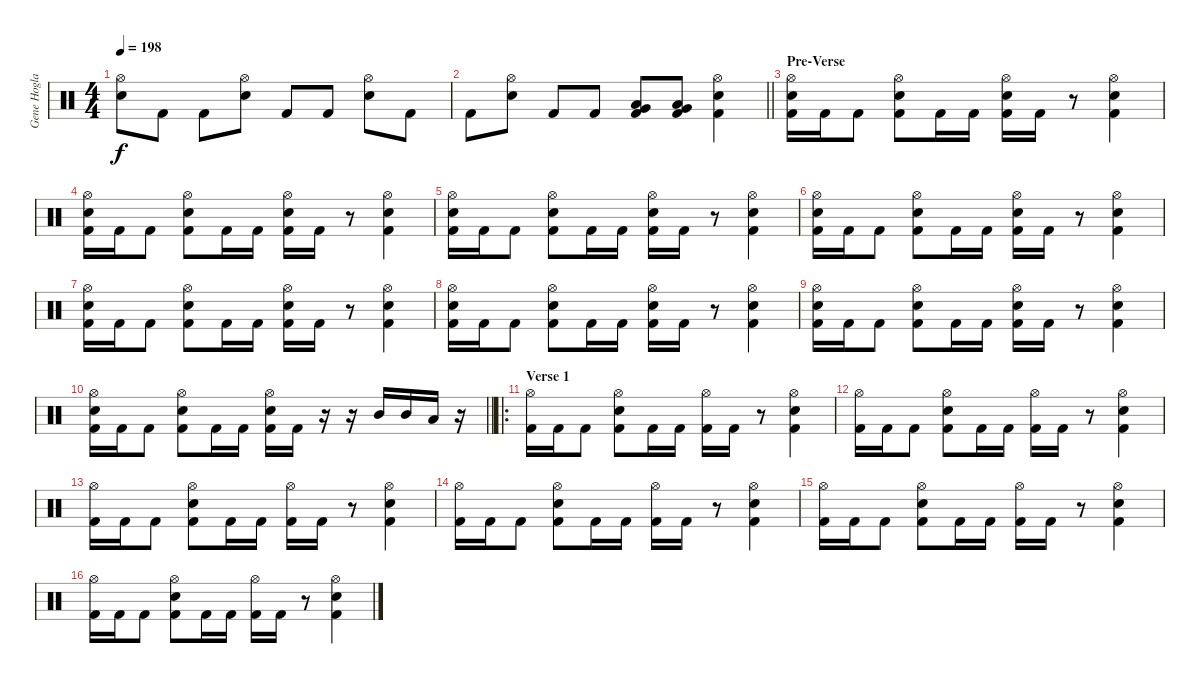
\track ("Gene Hoglan" "Gene Hogla") {instrument percussion}
\staff {score}
\articulation defaults
\ts (4 4)
\tempo 198
\clef neutral
\ks c
("Hi-Hat (open)" "Snare (hit) 2").8{dy f} "Kick (hit) 2".8 "Kick (hit) 2".8 ("Hi-Hat (open)" "Snare (hit) 2").8 "Kick (hit) 2".8 "Kick (hit) 2".8 ("Hi-Hat (open)" "Snare (hit) 2").8 "Kick (hit) 2".8 |
\barLineRight lightlight "Kick (hit) 2".8
("Hi-Hat (open)" "Snare (hit) 2").8 "Kick (hit) 2".8 "Kick (hit) 2".8 ("Low Tom (hit)" "Very Low Tom (hit)" "Kick (hit) 2").8 ("Low Tom (hit)" "Very Low Tom (hit)" "Kick (hit) 2").8 ("Hi-Hat (open)" "Snare (hit) 2" "Kick (hit) 2").4 |
\section ("" "Pre-Verse")
("Hi-Hat (open)" "Snare (hit) 2" "Kick (hit) 2").16 "Kick (hit) 2".16 "Kick (hit) 2".8 ("Hi-Hat (open)" "Snare (hit) 2" "Kick (hit) 2").8 "Kick (hit) 2".16 "Kick (hit) 2".16 ("Hi-Hat (open)" "Snare (hit) 2" "Kick (hit) 2").16 "Kick (hit) 2".16 r.8 ("Hi-Hat (open)" "Snare (hit) 2" "Kick (hit) 2").4 |
("Hi-Hat (open)" "Snare (hit) 2" "Kick (hit) 2").16 "Kick (hit) 2".16 "Kick (hit) 2".8 ("Hi-Hat (open)" "Snare (hit) 2" "Kick (hit) 2").8 "Kick (hit) 2".16 "Kick (hit) 2".16 ("Hi-Hat (open)" "Snare (hit) 2" "Kick (hit) 2").16 "Kick (hit) 2".16 r.8 ("Hi-Hat (open)" "Snare (hit) 2" "Kick (hit) 2").4 |
("Hi-Hat (open)" "Snare (hit) 2" "Kick (hit) 2").16 "Kick (hit) 2".16 "Kick (hit) 2".8 ("Hi-Hat (open)" "Snare (hit) 2" "Kick (hit) 2").8 "Kick (hit) 2".16 "Kick (hit) 2".16 ("Hi-Hat (open)" "Snare (hit) 2" "Kick (hit) 2").16 "Kick (hit) 2".16 r.8 ("Hi-Hat (open)" "Snare (hit) 2" "Kick (hit) 2").4 |
("Hi-Hat (open)" "Snare (hit) 2" "Kick (hit) 2").16 "Kick (hit) 2".16 "Kick (hit) 2".8 ("Hi-Hat (open)" "Snare (hit) 2" "Kick (hit) 2").8 "Kick (hit) 2".16 "Kick (hit) 2".16 ("Hi-Hat (open)" "Snare (hit) 2" "Kick (hit) 2").16 "Kick (hit) 2".16 r.8 ("Hi-Hat (open)" "Snare (hit) 2" "Kick (hit) 2").4 |
("Hi-Hat (open)" "Snare (hit) 2" "Kick (hit) 2").16 "Kick (hit) 2".16 "Kick (hit) 2".8 ("Hi-Hat (open)" "Snare (hit) 2" "Kick (hit) 2").8 "Kick (hit) 2".16 "Kick (hit) 2".16 ("Hi-Hat (open)" "Snare (hit) 2" "Kick (hit) 2").16 "Kick (hit) 2".16 r.8 ("Hi-Hat (open)" "Snare (hit) 2" "Kick (hit) 2").4 |
("Hi-Hat (open)" "Snare (hit) 2" "Kick (hit) 2").16 "Kick (hit) 2".16 "Kick (hit) 2".8 ("Hi-Hat (open)" "Snare (hit) 2" "Kick (hit) 2").8 "Kick (hit) 2".16 "Kick (hit) 2".16 ("Hi-Hat (open)" "Snare (hit) 2" "Kick (hit) 2").16 "Kick (hit) 2".16 r.8 ("Hi-Hat (open)" "Snare (hit) 2" "Kick (hit) 2").4 |
("Hi-Hat (open)" "Snare (hit) 2" "Kick (hit) 2").16 "Kick (hit) 2".16 "Kick (hit) 2".8 ("Hi-Hat (open)" "Snare (hit) 2" "Kick (hit) 2").8 "Kick (hit) 2".16 "Kick (hit) 2".16 ("Hi-Hat (open)" "Snare (hit) 2" "Kick (hit) 2").16 "Kick (hit) 2".16 r.8 ("Hi-Hat (open)" "Snare (hit) 2" "Kick (hit) 2").4 |
\barLineRight lightlight
("Hi-Hat (open)" "Snare (hit) 2" "Kick (hit) 2").16 "Kick (hit) 2".16 "Kick (hit) 2".8 ("Hi-Hat (open)" "Snare (hit) 2" "Kick (hit) 2").8 "Kick (hit) 2".16 "Kick (hit) 2".16 ("Hi-Hat (open)" "Snare (hit) 2" "Kick (hit) 2").16 "Kick (hit) 2".16 r.16 r.16 "Mid Tom (hit)".16 "Mid Tom (hit)".16 "Low Tom (hit)".16 r.16 |
\ro
\section ("" "Verse 1")
("Hi-Hat (open)" "Kick (hit) 2").16 "Kick (hit) 2".16 "Kick (hit) 2".8 ("Hi-Hat (open)" "Snare (hit) 2" "Kick (hit) 2").8 "Kick (hit) 2".16 "Kick (hit) 2".16 ("Hi-Hat (open)" "Kick (hit) 2").16 "Kick (hit) 2".16 r.8 ("Hi-Hat (open)" "Snare (hit) 2" "Kick (hit) 2").4 |
("Hi-Hat (open)" "Kick (hit) 2").16 "Kick (hit) 2".16 "Kick (hit) 2".8 ("Hi-Hat (open)" "Snare (hit) 2" "Kick (hit) 2").8 "Kick (hit) 2".16 "Kick (hit) 2".16 ("Hi-Hat (open)" "Kick (hit) 2").16 "Kick (hit) 2".16 r.8 ("Hi-Hat (open)" "Snare (hit) 2" "Kick (hit) 2").4 |
("Hi-Hat (open)" "Kick (hit) 2").16 "Kick (hit) 2".16 "Kick (hit) 2".8 ("Hi-Hat (open)" "Snare (hit) 2" "Kick (hit) 2").8 "Kick (hit) 2".16 "Kick (hit) 2".16 ("Hi-Hat (open)" "Kick (hit) 2").16 "Kick (hit) 2".16 r.8 ("Hi-Hat (open)" "Snare (hit) 2" "Kick (hit) 2").4 |
("Hi-Hat (open)" "Kick (hit) 2").16 "Kick (hit) 2".16 "Kick (hit) 2".8 ("Hi-Hat (open)" "Snare (hit) 2" "Kick (hit) 2").8 "Kick (hit) 2".16 "Kick (hit) 2".16 ("Hi-Hat (open)" "Kick (hit) 2").16 "Kick (hit) 2".16 r.8 ("Hi-Hat (open)" "Snare (hit) 2" "Kick (hit) 2").4 |
("Hi-Hat (open)" "Kick (hit) 2").16 "Kick (hit) 2".16 "Kick (hit) 2".8 ("Hi-Hat (open)" "Snare (hit) 2" "Kick (hit) 2").8 "Kick (hit) 2".16 "Kick (hit) 2".16 ("Hi-Hat (open)" "Kick (hit) 2").16 "Kick (hit) 2".16 r.8 ("Hi-Hat (open)" "Snare (hit) 2" "Kick (hit) 2").4 |
("Hi-Hat (open)" "Kick (hit) 2").16 "Kick (hit) 2".16 "Kick (hit) 2".8 ("Hi-Hat (open)" "Snare (hit) 2" "Kick (hit) 2").8 "Kick (hit) 2".16 "Kick (hit) 2".16 ("Hi-Hat (open)" "Kick (hit) 2").16 "Kick (hit) 2".16 r.8 ("Hi-Hat (open)" "Snare (hit) 2" "Kick (hit) 2").4
